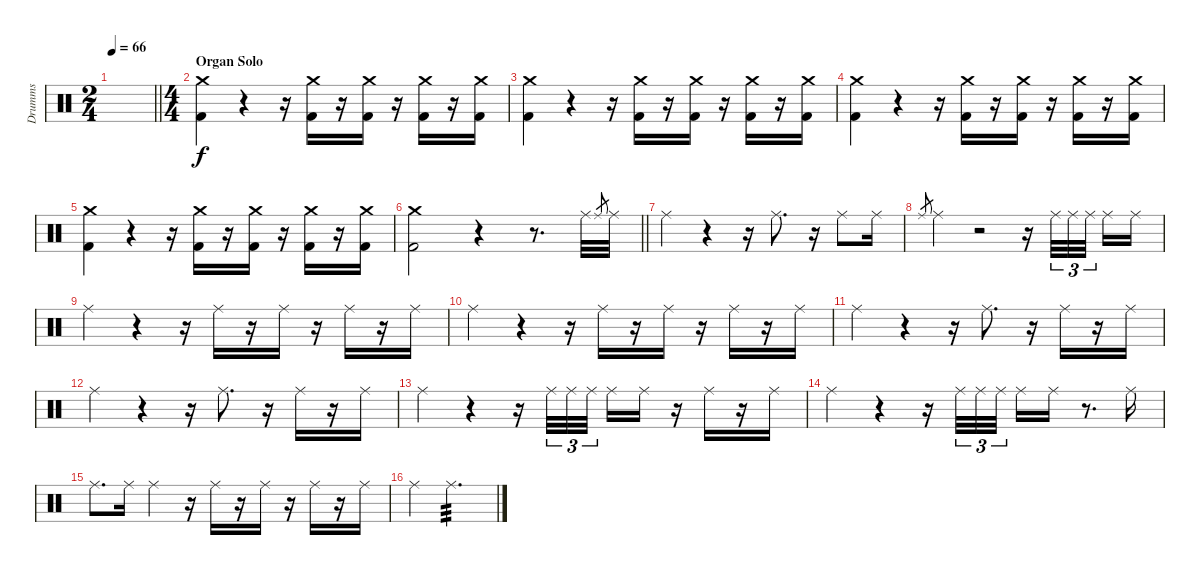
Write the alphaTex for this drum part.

\track ("Drumms" "Drumms") {instrument percussion}
\staff {score}
\articulation defaults
\ts (2 4)
\tempo 66
\clef neutral
\barLineRight lightlight
\ks c
|
\ts (4 4)
\section ("" "Organ Solo")
("Crash medium (hit)" "Kick (hit) 2").4 r.4 r.16 ("Crash medium (hit)" "Kick (hit) 2").16 r.16 ("Crash medium (hit)" "Kick (hit) 2").16 r.16 ("Crash medium (hit)" "Kick (hit) 2").16 r.16 ("Crash medium (hit)" "Kick (hit) 2").16 |
("Crash medium (hit)" "Kick (hit) 2").4 r.4 r.16 ("Crash medium (hit)" "Kick (hit) 2").16 r.16 ("Crash medium (hit)" "Kick (hit) 2").16 r.16 ("Crash medium (hit)" "Kick (hit) 2").16 r.16 ("Crash medium (hit)" "Kick (hit) 2").16 |
("Crash medium (hit)" "Kick (hit) 2").4 r.4 r.16 ("Crash medium (hit)" "Kick (hit) 2").16 r.16 ("Crash medium (hit)" "Kick (hit) 2").16 r.16 ("Crash medium (hit)" "Kick (hit) 2").16 r.16 ("Crash medium (hit)" "Kick (hit) 2").16 |
("Crash medium (hit)" "Kick (hit) 2").4 r.4 r.16 ("Crash medium (hit)" "Kick (hit) 2").16 r.16 ("Crash medium (hit)" "Kick (hit) 2").16 r.16 ("Crash medium (hit)" "Kick (hit) 2").16 r.16 ("Crash medium (hit)" "Kick (hit) 2").16 |
\barLineRight lightlight
("Crash medium (hit)" "Kick (hit) 2").2 r.4 r.8{d} "Ride (middle)".32{dy f volume 8} "Ride (middle)".8{gr} "Ride (middle)".32 |
\section ("" "")
"Ride (middle)".4 r.4 r.16 "Ride (middle)".8{d} r.16 "Ride (middle)".8 "Ride (middle)".16 |
"Ride (middle)".8{gr} "Ride (middle)".4 r.2 r.16 "Ride (middle)".32{tu (3 2)} "Ride (middle)".32{tu (3 2)} "Ride (middle)".32{tu (3 2)} "Ride (middle)".16 "Ride (middle)".16 |
"Ride (middle)".4 r.4 r.16 "Ride (middle)".16 r.16 "Ride (middle)".16 r.16 "Ride (middle)".16 r.16 "Ride (middle)".16 |
"Ride (middle)".4 r.4 r.16 "Ride (middle)".16 r.16 "Ride (middle)".16 r.16 "Ride (middle)".16 r.16 "Ride (middle)".16 |
"Ride (middle)".4 r.4 r.16 "Ride (middle)".8{d} r.16 "Ride (middle)".16 r.16 "Ride (middle)".16 |
"Ride (middle)".4 r.4 r.16 "Ride (middle)".8{d} r.16 "Ride (middle)".16 r.16 "Ride (middle)".16 |
"Ride (middle)".4 r.4 r.16 "Ride (middle)".32{tu (3 2)} "Ride (middle)".32{tu (3 2)} "Ride (middle)".32{tu (3 2)} "Ride (middle)".16 "Ride (middle)".16 r.16 "Ride (middle)".16 r.16 "Ride (middle)".16 |
"Ride (middle)".4 r.4 r.16 "Ride (middle)".32{tu (3 2)} "Ride (middle)".32{tu (3 2)} "Ride (middle)".32{tu (3 2)} "Ride (middle)".16 "Ride (middle)".16 r.8{d} "Ride (middle)".16 |
"Ride (middle)".8{d} "Ride (middle)".16 "Ride (middle)".4 r.16 "Ride (middle)".16 r.16 "Ride (middle)".16 r.16 "Ride (middle)".16 r.16 "Ride (middle)".16 |
"Ride (middle)".4 "Ride (middle)".2{d tp 3}
